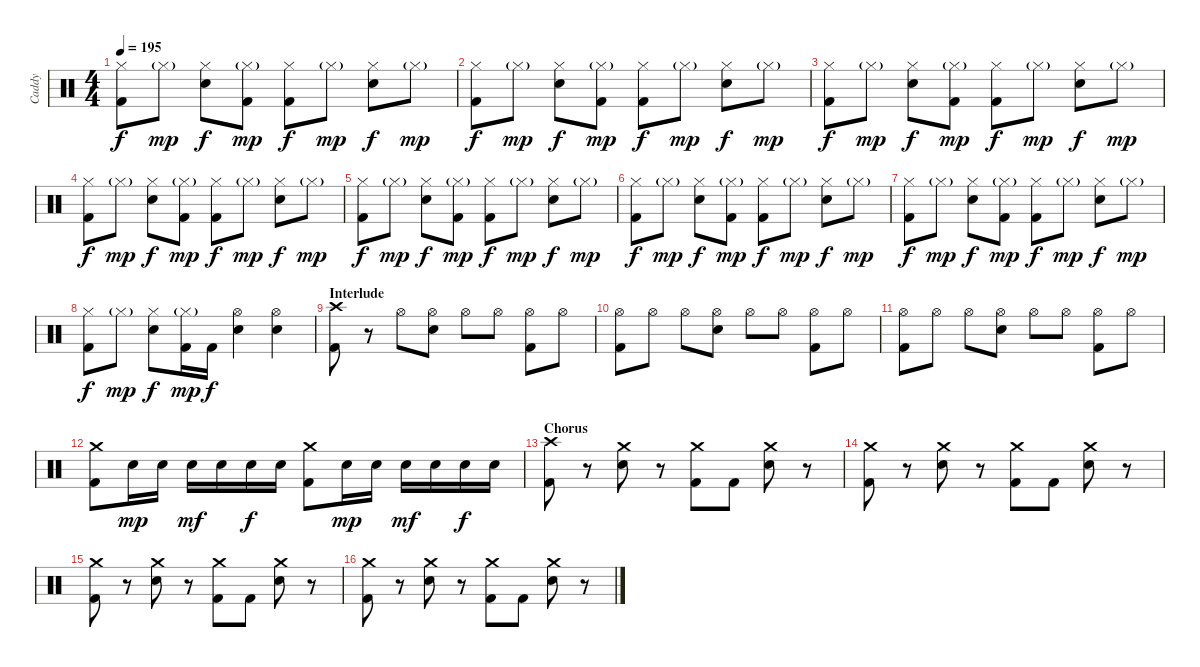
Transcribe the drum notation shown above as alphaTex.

\track ("Caddy" "Caddy") {instrument percussion}
\staff {score}
\articulation defaults
\ts (4 4)
\tempo 195
\clef neutral
\ks c
("Hi-Hat (closed)" "Kick (hit) 2").8{dy f} "Hi-Hat (closed)"{g}.8{dy mp} ("Hi-Hat (closed)" "Electric Snare (hit)").8{dy f} ("Hi-Hat (closed)"{g} "Kick (hit) 2").8{dy mp} ("Hi-Hat (closed)" "Kick (hit) 2").8{dy f} "Hi-Hat (closed)"{g}.8{dy mp} ("Hi-Hat (closed)" "Electric Snare (hit)").8{dy f} "Hi-Hat (closed)"{g}.8{dy mp} |
("Hi-Hat (closed)" "Kick (hit) 2").8{dy f} "Hi-Hat (closed)"{g}.8{dy mp} ("Hi-Hat (closed)" "Electric Snare (hit)").8{dy f} ("Hi-Hat (closed)"{g} "Kick (hit) 2").8{dy mp} ("Hi-Hat (closed)" "Kick (hit) 2").8{dy f} "Hi-Hat (closed)"{g}.8{dy mp} ("Hi-Hat (closed)" "Electric Snare (hit)").8{dy f} "Hi-Hat (closed)"{g}.8{dy mp} |
("Hi-Hat (closed)" "Kick (hit) 2").8{dy f} "Hi-Hat (closed)"{g}.8{dy mp} ("Hi-Hat (closed)" "Electric Snare (hit)").8{dy f} ("Hi-Hat (closed)"{g} "Kick (hit) 2").8{dy mp} ("Hi-Hat (closed)" "Kick (hit) 2").8{dy f} "Hi-Hat (closed)"{g}.8{dy mp} ("Hi-Hat (closed)" "Electric Snare (hit)").8{dy f} "Hi-Hat (closed)"{g}.8{dy mp} |
("Hi-Hat (closed)" "Kick (hit) 2").8{dy f} "Hi-Hat (closed)"{g}.8{dy mp} ("Hi-Hat (closed)" "Electric Snare (hit)").8{dy f} ("Hi-Hat (closed)"{g} "Kick (hit) 2").8{dy mp} ("Hi-Hat (closed)" "Kick (hit) 2").8{dy f} "Hi-Hat (closed)"{g}.8{dy mp} ("Hi-Hat (closed)" "Electric Snare (hit)").8{dy f} "Hi-Hat (closed)"{g}.8{dy mp} |
("Hi-Hat (closed)" "Kick (hit) 2").8{dy f} "Hi-Hat (closed)"{g}.8{dy mp} ("Hi-Hat (closed)" "Electric Snare (hit)").8{dy f} ("Hi-Hat (closed)"{g} "Kick (hit) 2").8{dy mp} ("Hi-Hat (closed)" "Kick (hit) 2").8{dy f} "Hi-Hat (closed)"{g}.8{dy mp} ("Hi-Hat (closed)" "Electric Snare (hit)").8{dy f} "Hi-Hat (closed)"{g}.8{dy mp} |
("Hi-Hat (closed)" "Kick (hit) 2").8{dy f} "Hi-Hat (closed)"{g}.8{dy mp} ("Hi-Hat (closed)" "Electric Snare (hit)").8{dy f} ("Hi-Hat (closed)"{g} "Kick (hit) 2").8{dy mp} ("Hi-Hat (closed)" "Kick (hit) 2").8{dy f} "Hi-Hat (closed)"{g}.8{dy mp} ("Hi-Hat (closed)" "Electric Snare (hit)").8{dy f} "Hi-Hat (closed)"{g}.8{dy mp} |
("Hi-Hat (closed)" "Kick (hit) 2").8{dy f} "Hi-Hat (closed)"{g}.8{dy mp} ("Hi-Hat (closed)" "Electric Snare (hit)").8{dy f} ("Hi-Hat (closed)"{g} "Kick (hit) 2").8{dy mp} ("Hi-Hat (closed)" "Kick (hit) 2").8{dy f} "Hi-Hat (closed)"{g}.8{dy mp} ("Hi-Hat (closed)" "Electric Snare (hit)").8{dy f} "Hi-Hat (closed)"{g}.8{dy mp} |
("Hi-Hat (closed)" "Kick (hit) 2").8{dy f} "Hi-Hat (closed)"{g}.8{dy mp} ("Hi-Hat (closed)" "Electric Snare (hit)").8{dy f} ("Hi-Hat (closed)"{g} "Kick (hit) 2").16{dy mp} "Kick (hit) 2".16{dy f} ("Hi-Hat (open)" "Electric Snare (hit)").4 ("Hi-Hat (open)" "Electric Snare (hit)").4 |
\section ("" "Interlude")
("Crash high (hit)" "Kick (hit) 2").8 r.8 "Hi-Hat (open)".8 ("Hi-Hat (open)" "Electric Snare (hit)").8 "Hi-Hat (open)".8 "Hi-Hat (open)".8 ("Hi-Hat (open)" "Kick (hit) 2").8 "Hi-Hat (open)".8 |
("Hi-Hat (open)" "Kick (hit) 2").8 "Hi-Hat (open)".8 "Hi-Hat (open)".8 ("Hi-Hat (open)" "Electric Snare (hit)").8 "Hi-Hat (open)".8 "Hi-Hat (open)".8 ("Hi-Hat (open)" "Kick (hit) 2").8 "Hi-Hat (open)".8 |
("Hi-Hat (open)" "Kick (hit) 2").8 "Hi-Hat (open)".8 "Hi-Hat (open)".8 ("Hi-Hat (open)" "Electric Snare (hit)").8 "Hi-Hat (open)".8 "Hi-Hat (open)".8 ("Hi-Hat (open)" "Kick (hit) 2").8 "Hi-Hat (open)".8 |
("Crash medium (hit)" "Kick (hit) 2").8 "Electric Snare (hit)".16{dy mp} "Electric Snare (hit)".16 "Electric Snare (hit)".16{dy mf} "Electric Snare (hit)".16 "Electric Snare (hit)".16{dy f} "Electric Snare (hit)".16 ("Crash medium (hit)" "Kick (hit) 2").8 "Electric Snare (hit)".16{dy mp} "Electric Snare (hit)".16 "Electric Snare (hit)".16{dy mf} "Electric Snare (hit)".16 "Electric Snare (hit)".16{dy f} "Electric Snare (hit)".16 |
\section ("" "Chorus")
("Crash high (hit)" "Kick (hit) 2").8 r.8 ("Crash medium (hit)" "Electric Snare (hit)").8 r.8 ("Crash medium (hit)" "Kick (hit) 2").8 "Kick (hit) 2".8 ("Crash medium (hit)" "Electric Snare (hit)").8 r.8 |
("Crash medium (hit)" "Kick (hit) 2").8 r.8 ("Crash medium (hit)" "Electric Snare (hit)").8 r.8 ("Crash medium (hit)" "Kick (hit) 2").8 "Kick (hit) 2".8 ("Crash medium (hit)" "Electric Snare (hit)").8 r.8 |
("Crash medium (hit)" "Kick (hit) 2").8 r.8 ("Crash medium (hit)" "Electric Snare (hit)").8 r.8 ("Crash medium (hit)" "Kick (hit) 2").8 "Kick (hit) 2".8 ("Crash medium (hit)" "Electric Snare (hit)").8 r.8 |
("Crash medium (hit)" "Kick (hit) 2").8 r.8 ("Crash medium (hit)" "Electric Snare (hit)").8 r.8 ("Crash medium (hit)" "Kick (hit) 2").8 "Kick (hit) 2".8 ("Crash medium (hit)" "Electric Snare (hit)").8 r.8
